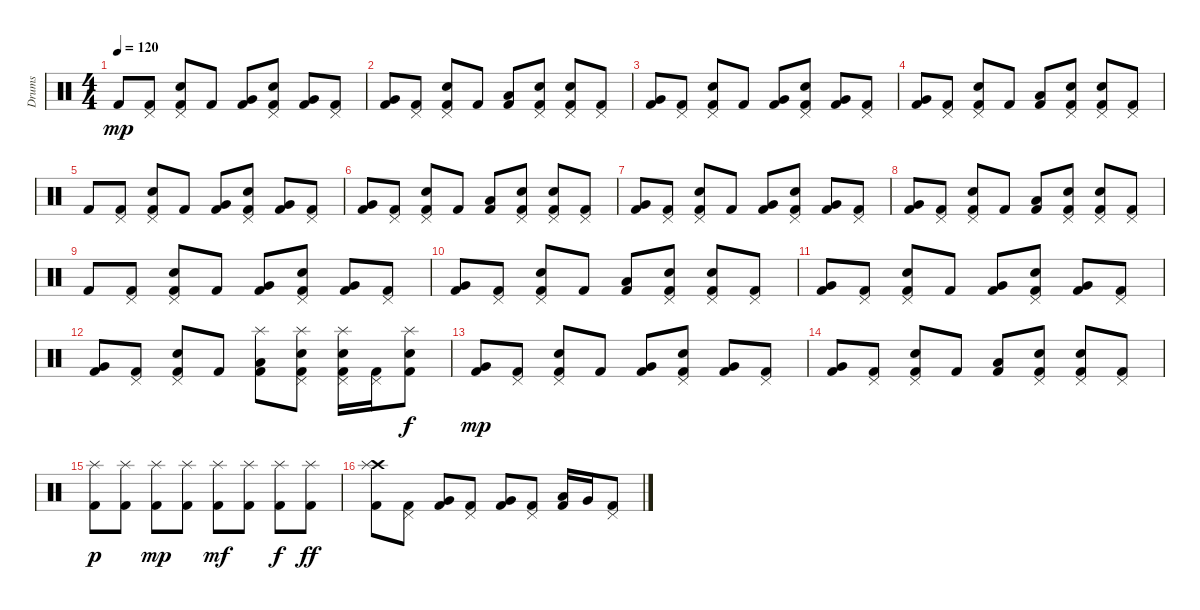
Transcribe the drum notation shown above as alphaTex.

\track ("Drums" "Drums") {instrument percussion}
\staff {score}
\articulation defaults
\ts (4 4)
\tempo 120
\clef neutral
\ks c "Kick (hit) 2".8{dy mp volume 13}
("Pedal Hi-Hat (hit)" "Kick (hit) 2").8 ("Pedal Hi-Hat (hit)" "Electric Snare (hit)" "Kick (hit) 2").8 "Kick (hit) 2".8 ("Very Low Tom (hit)" "Kick (hit) 2").8 ("Pedal Hi-Hat (hit)" "Electric Snare (hit)" "Kick (hit) 2").8 ("Very Low Tom (hit)" "Kick (hit) 2").8 ("Pedal Hi-Hat (hit)" "Kick (hit) 2").8 |
("Very Low Tom (hit)" "Kick (hit) 2").8 ("Pedal Hi-Hat (hit)" "Kick (hit) 2").8 ("Pedal Hi-Hat (hit)" "Electric Snare (hit)" "Kick (hit) 2").8 "Kick (hit) 2".8 ("Low Tom (hit)" "Kick (hit) 2").8 ("Pedal Hi-Hat (hit)" "Electric Snare (hit)" "Kick (hit) 2").8 ("Pedal Hi-Hat (hit)" "Electric Snare (hit)" "Kick (hit) 2").8 ("Pedal Hi-Hat (hit)" "Kick (hit) 2").8 |
("Very Low Tom (hit)" "Kick (hit) 2").8 ("Pedal Hi-Hat (hit)" "Kick (hit) 2").8 ("Pedal Hi-Hat (hit)" "Electric Snare (hit)" "Kick (hit) 2").8 "Kick (hit) 2".8 ("Very Low Tom (hit)" "Kick (hit) 2").8 ("Pedal Hi-Hat (hit)" "Electric Snare (hit)" "Kick (hit) 2").8 ("Very Low Tom (hit)" "Kick (hit) 2").8 ("Pedal Hi-Hat (hit)" "Kick (hit) 2").8 |
("Very Low Tom (hit)" "Kick (hit) 2").8 ("Pedal Hi-Hat (hit)" "Kick (hit) 2").8 ("Pedal Hi-Hat (hit)" "Electric Snare (hit)" "Kick (hit) 2").8 "Kick (hit) 2".8 ("Low Tom (hit)" "Kick (hit) 2").8 ("Pedal Hi-Hat (hit)" "Electric Snare (hit)" "Kick (hit) 2").8 ("Pedal Hi-Hat (hit)" "Electric Snare (hit)" "Kick (hit) 2").8 ("Pedal Hi-Hat (hit)" "Kick (hit) 2").8 |
"Kick (hit) 2".8{volume 13} ("Pedal Hi-Hat (hit)" "Kick (hit) 2").8 ("Pedal Hi-Hat (hit)" "Electric Snare (hit)" "Kick (hit) 2").8 "Kick (hit) 2".8 ("Very Low Tom (hit)" "Kick (hit) 2").8 ("Pedal Hi-Hat (hit)" "Electric Snare (hit)" "Kick (hit) 2").8 ("Very Low Tom (hit)" "Kick (hit) 2").8 ("Pedal Hi-Hat (hit)" "Kick (hit) 2").8 |
("Very Low Tom (hit)" "Kick (hit) 2").8 ("Pedal Hi-Hat (hit)" "Kick (hit) 2").8 ("Pedal Hi-Hat (hit)" "Electric Snare (hit)" "Kick (hit) 2").8 "Kick (hit) 2".8 ("Low Tom (hit)" "Kick (hit) 2").8 ("Pedal Hi-Hat (hit)" "Electric Snare (hit)" "Kick (hit) 2").8 ("Pedal Hi-Hat (hit)" "Electric Snare (hit)" "Kick (hit) 2").8 ("Pedal Hi-Hat (hit)" "Kick (hit) 2").8 |
("Very Low Tom (hit)" "Kick (hit) 2").8 ("Pedal Hi-Hat (hit)" "Kick (hit) 2").8 ("Pedal Hi-Hat (hit)" "Electric Snare (hit)" "Kick (hit) 2").8 "Kick (hit) 2".8 ("Very Low Tom (hit)" "Kick (hit) 2").8 ("Pedal Hi-Hat (hit)" "Electric Snare (hit)" "Kick (hit) 2").8 ("Very Low Tom (hit)" "Kick (hit) 2").8 ("Pedal Hi-Hat (hit)" "Kick (hit) 2").8 |
("Very Low Tom (hit)" "Kick (hit) 2").8 ("Pedal Hi-Hat (hit)" "Kick (hit) 2").8 ("Pedal Hi-Hat (hit)" "Electric Snare (hit)" "Kick (hit) 2").8 "Kick (hit) 2".8 ("Low Tom (hit)" "Kick (hit) 2").8 ("Pedal Hi-Hat (hit)" "Electric Snare (hit)" "Kick (hit) 2").8 ("Pedal Hi-Hat (hit)" "Electric Snare (hit)" "Kick (hit) 2").8 ("Pedal Hi-Hat (hit)" "Kick (hit) 2").8 |
"Kick (hit) 2".8{volume 13} ("Pedal Hi-Hat (hit)" "Kick (hit) 2").8 ("Pedal Hi-Hat (hit)" "Electric Snare (hit)" "Kick (hit) 2").8 "Kick (hit) 2".8 ("Very Low Tom (hit)" "Kick (hit) 2").8 ("Pedal Hi-Hat (hit)" "Electric Snare (hit)" "Kick (hit) 2").8 ("Very Low Tom (hit)" "Kick (hit) 2").8 ("Pedal Hi-Hat (hit)" "Kick (hit) 2").8 |
("Very Low Tom (hit)" "Kick (hit) 2").8 ("Pedal Hi-Hat (hit)" "Kick (hit) 2").8 ("Pedal Hi-Hat (hit)" "Electric Snare (hit)" "Kick (hit) 2").8 "Kick (hit) 2".8 ("Low Tom (hit)" "Kick (hit) 2").8 ("Pedal Hi-Hat (hit)" "Electric Snare (hit)" "Kick (hit) 2").8 ("Pedal Hi-Hat (hit)" "Electric Snare (hit)" "Kick (hit) 2").8 ("Pedal Hi-Hat (hit)" "Kick (hit) 2").8 |
("Very Low Tom (hit)" "Kick (hit) 2").8 ("Pedal Hi-Hat (hit)" "Kick (hit) 2").8 ("Pedal Hi-Hat (hit)" "Electric Snare (hit)" "Kick (hit) 2").8 "Kick (hit) 2".8 ("Very Low Tom (hit)" "Kick (hit) 2").8 ("Pedal Hi-Hat (hit)" "Electric Snare (hit)" "Kick (hit) 2").8 ("Very Low Tom (hit)" "Kick (hit) 2").8 ("Pedal Hi-Hat (hit)" "Kick (hit) 2").8 |
("Very Low Tom (hit)" "Kick (hit) 2").8 ("Pedal Hi-Hat (hit)" "Kick (hit) 2").8 ("Pedal Hi-Hat (hit)" "Electric Snare (hit)" "Kick (hit) 2").8 "Kick (hit) 2".8 ("Low Tom (hit)" "Splash (hit)" "Kick (hit) 2").8 ("Pedal Hi-Hat (hit)" "Electric Snare (hit)" "Splash (hit)" "Kick (hit) 2").8 ("Pedal Hi-Hat (hit)" "Electric Snare (hit)" "Splash (hit)" "Kick (hit) 2").16 ("Pedal Hi-Hat (hit)" "Kick (hit) 2").16 ("Electric Snare (hit)" "Splash (hit)" "Kick (hit) 2").8{dy f} |
("Very Low Tom (hit)" "Kick (hit) 2").8{dy mp} ("Pedal Hi-Hat (hit)" "Kick (hit) 2").8 ("Pedal Hi-Hat (hit)" "Electric Snare (hit)" "Kick (hit) 2").8 "Kick (hit) 2".8 ("Very Low Tom (hit)" "Kick (hit) 2").8 ("Pedal Hi-Hat (hit)" "Electric Snare (hit)" "Kick (hit) 2").8 ("Very Low Tom (hit)" "Kick (hit) 2").8 ("Pedal Hi-Hat (hit)" "Kick (hit) 2").8 |
("Very Low Tom (hit)" "Kick (hit) 2").8 ("Pedal Hi-Hat (hit)" "Kick (hit) 2").8 ("Pedal Hi-Hat (hit)" "Electric Snare (hit)" "Kick (hit) 2").8 "Kick (hit) 2".8 ("Low Tom (hit)" "Kick (hit) 2").8 ("Pedal Hi-Hat (hit)" "Electric Snare (hit)" "Kick (hit) 2").8 ("Pedal Hi-Hat (hit)" "Electric Snare (hit)" "Kick (hit) 2").8 ("Pedal Hi-Hat (hit)" "Kick (hit) 2").8 |
("Splash (hit)" "Kick (hit) 2").8{dy p} ("Splash (hit)" "Kick (hit) 2").8 ("Splash (hit)" "Kick (hit) 2").8{dy mp} ("Splash (hit)" "Kick (hit) 2").8 ("Splash (hit)" "Kick (hit) 2").8{dy mf} ("Splash (hit)" "Kick (hit) 2").8 ("Splash (hit)" "Kick (hit) 2").8{dy f} ("Splash (hit)" "Kick (hit) 2").8{dy ff} |
("Crash high (hit)" "Splash (hit)" "Kick (hit) 2").8 ("Pedal Hi-Hat (hit)" "Kick (hit) 2").8 ("Very Low Tom (hit)" "Kick (hit) 2").8 ("Pedal Hi-Hat (hit)" "Kick (hit) 2").8 ("Very Low Tom (hit)" "Kick (hit) 2").8 ("Pedal Hi-Hat (hit)" "Kick (hit) 2").8 ("Low Tom (hit)" "Kick (hit) 2").16 "Very Low Tom (hit)".16 ("Pedal Hi-Hat (hit)" "Kick (hit) 2").8
